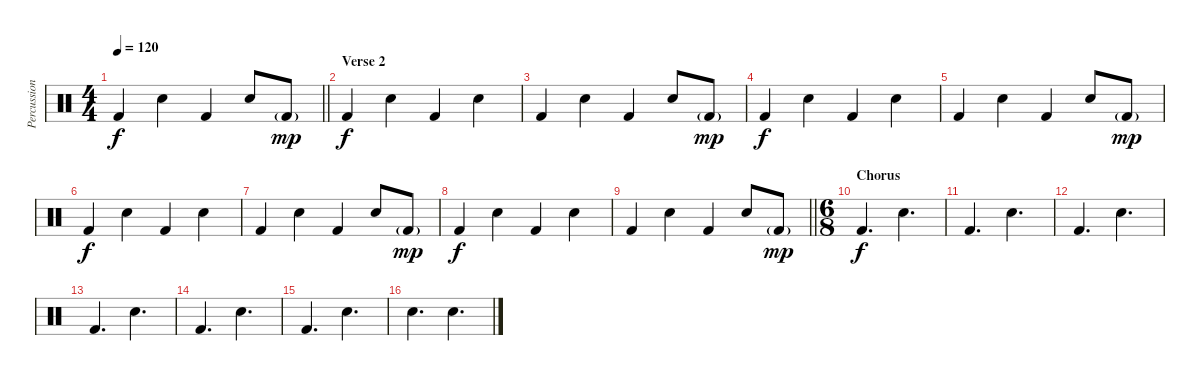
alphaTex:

\track ("Percussion" "Percussion") {instrument percussion}
\staff {score}
\articulation defaults
\ts (4 4)
\tempo 120
\clef neutral
\barLineRight lightlight
\ks c "Kick (hit) 2".4{dy f} "Snare (hit) 2".4 "Kick (hit) 2".4 "Snare (hit) 2".8 "Kick (hit) 2"{g}.8{dy mp}
|
\section ("" "Verse 2")
"Kick (hit) 2".4{dy f} "Snare (hit) 2".4 "Kick (hit) 2".4 "Snare (hit) 2".4 |
"Kick (hit) 2".4 "Snare (hit) 2".4 "Kick (hit) 2".4 "Snare (hit) 2".8 "Kick (hit) 2"{g}.8{dy mp} |
"Kick (hit) 2".4{dy f} "Snare (hit) 2".4 "Kick (hit) 2".4 "Snare (hit) 2".4 |
"Kick (hit) 2".4 "Snare (hit) 2".4 "Kick (hit) 2".4 "Snare (hit) 2".8 "Kick (hit) 2"{g}.8{dy mp} |
"Kick (hit) 2".4{dy f} "Snare (hit) 2".4 "Kick (hit) 2".4 "Snare (hit) 2".4 |
"Kick (hit) 2".4 "Snare (hit) 2".4 "Kick (hit) 2".4 "Snare (hit) 2".8 "Kick (hit) 2"{g}.8{dy mp} |
"Kick (hit) 2".4{dy f} "Snare (hit) 2".4 "Kick (hit) 2".4 "Snare (hit) 2".4 |
\barLineRight lightlight "Kick (hit) 2".4 "Snare (hit) 2".4 "Kick (hit) 2".4 "Snare (hit) 2".8 "Kick (hit) 2"{g}.8{dy mp}
|
\ts (6 8)
\section ("" "Chorus")
"Kick (hit) 2".4{d dy f} "Snare (hit) 2".4{d} |
"Kick (hit) 2".4{d} "Snare (hit) 2".4{d} |
"Kick (hit) 2".4{d} "Snare (hit) 2".4{d} |
"Kick (hit) 2".4{d} "Snare (hit) 2".4{d} |
"Kick (hit) 2".4{d} "Snare (hit) 2".4{d} |
"Kick (hit) 2".4{d} "Snare (hit) 2".4{d} |
"Snare (hit) 2".4{d} "Snare (hit) 2".4{d}
